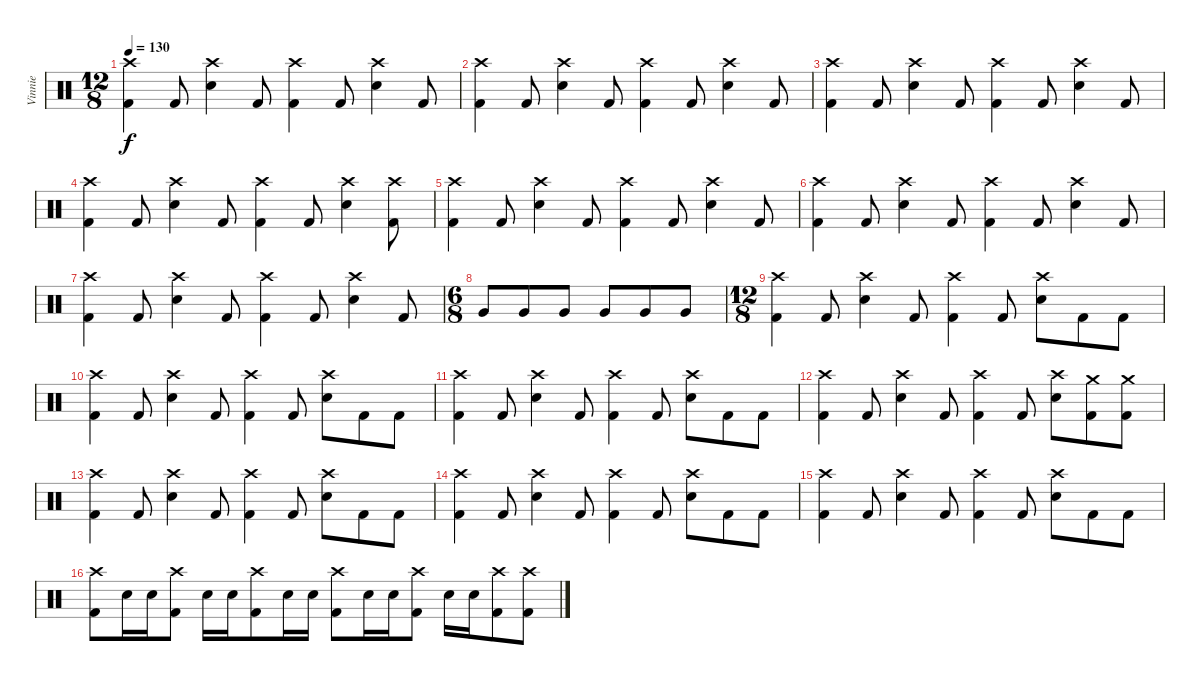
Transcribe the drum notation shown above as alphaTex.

\track ("Vinnie" "Vinnie") {instrument percussion}
\staff {score}
\articulation defaults
\ts (12 8)
\tempo 130
\clef neutral
\ks c
("Crash high (hit)" "Kick (hit) 2").4{dy f} "Kick (hit) 2".8 ("Crash high (hit)" "Electric Snare (hit)").4 "Kick (hit) 2".8 ("Crash high (hit)" "Kick (hit) 2").4 "Kick (hit) 2".8 ("Crash high (hit)" "Electric Snare (hit)").4 "Kick (hit) 2".8 |
("Crash high (hit)" "Kick (hit) 2").4 "Kick (hit) 2".8 ("Crash high (hit)" "Electric Snare (hit)").4 "Kick (hit) 2".8 ("Crash high (hit)" "Kick (hit) 2").4 "Kick (hit) 2".8 ("Crash high (hit)" "Electric Snare (hit)").4 "Kick (hit) 2".8 |
("Crash high (hit)" "Kick (hit) 2").4 "Kick (hit) 2".8 ("Crash high (hit)" "Electric Snare (hit)").4 "Kick (hit) 2".8 ("Crash high (hit)" "Kick (hit) 2").4 "Kick (hit) 2".8 ("Crash high (hit)" "Electric Snare (hit)").4 "Kick (hit) 2".8 |
("Crash high (hit)" "Kick (hit) 2").4 "Kick (hit) 2".8 ("Crash high (hit)" "Electric Snare (hit)").4 "Kick (hit) 2".8 ("Crash high (hit)" "Kick (hit) 2").4 "Kick (hit) 2".8 ("Crash high (hit)" "Electric Snare (hit)").4 ("Crash high (hit)" "Kick (hit) 2").8 |
("Crash high (hit)" "Kick (hit) 2").4 "Kick (hit) 2".8 ("Crash high (hit)" "Electric Snare (hit)").4 "Kick (hit) 2".8 ("Crash high (hit)" "Kick (hit) 2").4 "Kick (hit) 2".8 ("Crash high (hit)" "Electric Snare (hit)").4 "Kick (hit) 2".8 |
("Crash high (hit)" "Kick (hit) 2").4 "Kick (hit) 2".8 ("Crash high (hit)" "Electric Snare (hit)").4 "Kick (hit) 2".8 ("Crash high (hit)" "Kick (hit) 2").4 "Kick (hit) 2".8 ("Crash high (hit)" "Electric Snare (hit)").4 "Kick (hit) 2".8 |
("Crash high (hit)" "Kick (hit) 2").4 "Kick (hit) 2".8 ("Crash high (hit)" "Electric Snare (hit)").4 "Kick (hit) 2".8 ("Crash high (hit)" "Kick (hit) 2").4 "Kick (hit) 2".8 ("Crash high (hit)" "Electric Snare (hit)").4 "Kick (hit) 2".8 |
\ts (6 8)
"Very Low Tom (hit)".8 "Very Low Tom (hit)".8 "Very Low Tom (hit)".8 "Very Low Tom (hit)".8 "Very Low Tom (hit)".8 "Very Low Tom (hit)".8 |
\ts (12 8)
("Crash high (hit)" "Kick (hit) 2").4 "Kick (hit) 2".8 ("Crash high (hit)" "Electric Snare (hit)").4 "Kick (hit) 2".8 ("Crash high (hit)" "Kick (hit) 2").4 "Kick (hit) 2".8 ("Crash high (hit)" "Electric Snare (hit)").8 "Kick (hit) 2".8 "Kick (hit) 2".8 |
("Crash high (hit)" "Kick (hit) 2").4 "Kick (hit) 2".8 ("Crash high (hit)" "Electric Snare (hit)").4 "Kick (hit) 2".8 ("Crash high (hit)" "Kick (hit) 2").4 "Kick (hit) 2".8 ("Crash high (hit)" "Electric Snare (hit)").8 "Kick (hit) 2".8 "Kick (hit) 2".8 |
("Crash high (hit)" "Kick (hit) 2").4 "Kick (hit) 2".8 ("Crash high (hit)" "Electric Snare (hit)").4 "Kick (hit) 2".8 ("Crash high (hit)" "Kick (hit) 2").4 "Kick (hit) 2".8 ("Crash high (hit)" "Electric Snare (hit)").8 "Kick (hit) 2".8 "Kick (hit) 2".8 |
("Crash high (hit)" "Kick (hit) 2").4 "Kick (hit) 2".8 ("Crash high (hit)" "Electric Snare (hit)").4 "Kick (hit) 2".8 ("Crash high (hit)" "Kick (hit) 2").4 "Kick (hit) 2".8 ("Crash high (hit)" "Electric Snare (hit)").8 ("Crash medium (hit)" "Kick (hit) 2").8 ("Crash medium (hit)" "Kick (hit) 2").8 |
("Crash high (hit)" "Kick (hit) 2").4 "Kick (hit) 2".8 ("Crash high (hit)" "Electric Snare (hit)").4 "Kick (hit) 2".8 ("Crash high (hit)" "Kick (hit) 2").4 "Kick (hit) 2".8 ("Crash high (hit)" "Electric Snare (hit)").8 "Kick (hit) 2".8 "Kick (hit) 2".8 |
("Crash high (hit)" "Kick (hit) 2").4 "Kick (hit) 2".8 ("Crash high (hit)" "Electric Snare (hit)").4 "Kick (hit) 2".8 ("Crash high (hit)" "Kick (hit) 2").4 "Kick (hit) 2".8 ("Crash high (hit)" "Electric Snare (hit)").8 "Kick (hit) 2".8 "Kick (hit) 2".8 |
("Crash high (hit)" "Kick (hit) 2").4 "Kick (hit) 2".8 ("Crash high (hit)" "Electric Snare (hit)").4 "Kick (hit) 2".8 ("Crash high (hit)" "Kick (hit) 2").4 "Kick (hit) 2".8 ("Crash high (hit)" "Electric Snare (hit)").8 "Kick (hit) 2".8 "Kick (hit) 2".8 |
("Crash high (hit)" "Kick (hit) 2").8 "Electric Snare (hit)".16 "Electric Snare (hit)".16 ("Crash high (hit)" "Kick (hit) 2").8 "Electric Snare (hit)".16 "Electric Snare (hit)".16 ("Crash high (hit)" "Kick (hit) 2").8 "Electric Snare (hit)".16 "Electric Snare (hit)".16 ("Crash high (hit)" "Kick (hit) 2").8 "Electric Snare (hit)".16 "Electric Snare (hit)".16 ("Crash high (hit)" "Kick (hit) 2").8 "Electric Snare (hit)".16 "Electric Snare (hit)".16 ("Crash high (hit)" "Kick (hit) 2").8 ("Crash high (hit)" "Kick (hit) 2").8
